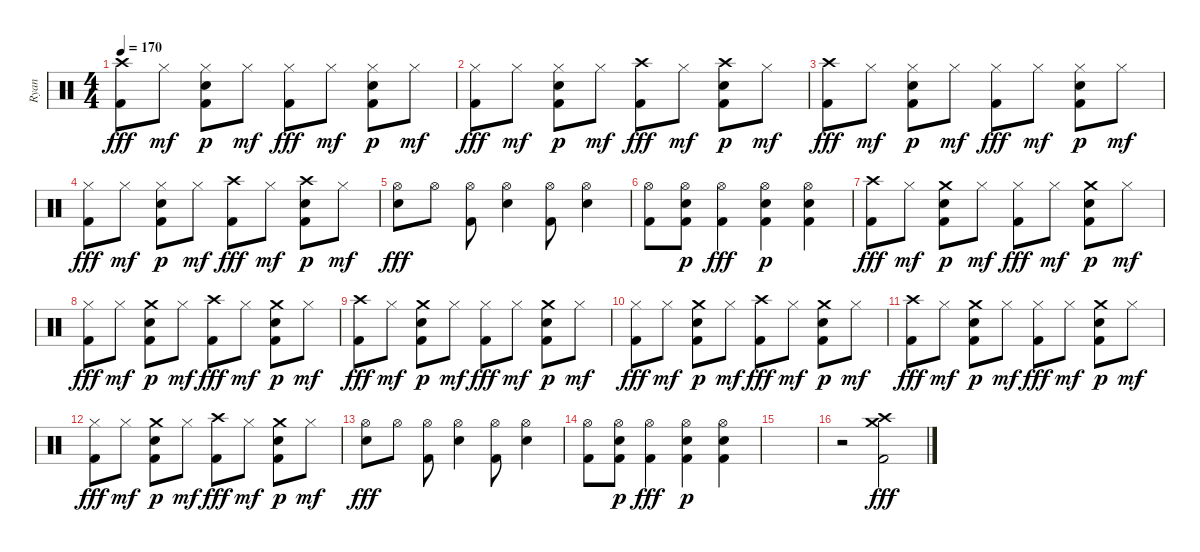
\track ("Ryan" "Ryan") {instrument percussion}
\staff {score}
\articulation defaults
\ts (4 4)
\tempo 170
\clef neutral
\ks c
("Kick (hit) 2" "Crash high (hit)").8{dy fff} "Hi-Hat (closed)".8{dy mf} ("Snare (hit) 2" "Hi-Hat (closed)" "Kick (hit) 2").8{dy p} "Hi-Hat (closed)".8{dy mf} ("Kick (hit) 2" "Hi-Hat (closed)").8{dy fff} "Hi-Hat (closed)".8{dy mf} ("Snare (hit) 2" "Hi-Hat (closed)" "Kick (hit) 2").8{dy p} "Hi-Hat (closed)".8{dy mf} |
("Kick (hit) 2" "Hi-Hat (closed)").8{dy fff} "Hi-Hat (closed)".8{dy mf} ("Snare (hit) 2" "Hi-Hat (closed)" "Kick (hit) 2").8{dy p} "Hi-Hat (closed)".8{dy mf} ("Kick (hit) 2" "Crash high (hit)").8{dy fff} "Hi-Hat (closed)".8{dy mf} ("Snare (hit) 2" "Crash high (hit)" "Kick (hit) 2").8{dy p} "Hi-Hat (closed)".8{dy mf} |
("Kick (hit) 2" "Crash high (hit)").8{dy fff} "Hi-Hat (closed)".8{dy mf} ("Snare (hit) 2" "Hi-Hat (closed)" "Kick (hit) 2").8{dy p} "Hi-Hat (closed)".8{dy mf} ("Kick (hit) 2" "Hi-Hat (closed)").8{dy fff} "Hi-Hat (closed)".8{dy mf} ("Snare (hit) 2" "Hi-Hat (closed)" "Kick (hit) 2").8{dy p} "Hi-Hat (closed)".8{dy mf} |
("Kick (hit) 2" "Hi-Hat (closed)").8{dy fff} "Hi-Hat (closed)".8{dy mf} ("Snare (hit) 2" "Hi-Hat (closed)" "Kick (hit) 2").8{dy p} "Hi-Hat (closed)".8{dy mf} ("Kick (hit) 2" "Crash high (hit)").8{dy fff} "Hi-Hat (closed)".8{dy mf} ("Snare (hit) 2" "Crash high (hit)" "Kick (hit) 2").8{dy p} "Hi-Hat (closed)".8{dy mf} |
("Hi-Hat (open)" "Snare (hit) 2").8{dy fff} "Hi-Hat (open)".8 ("Hi-Hat (open)" "Kick (hit) 2").8 ("Hi-Hat (open)" "Snare (hit) 2").4 ("Hi-Hat (open)" "Kick (hit) 2").8 ("Hi-Hat (open)" "Snare (hit) 2").4 |
("Kick (hit) 2" "Hi-Hat (open)").8 ("Snare (hit) 2" "Hi-Hat (open)" "Kick (hit) 2").8{dy p} ("Kick (hit) 2" "Hi-Hat (open)").4{dy fff} ("Snare (hit) 2" "Hi-Hat (open)" "Kick (hit) 2").4{dy p} ("Snare (hit) 2" "Hi-Hat (open)" "Kick (hit) 2").4 |
("Kick (hit) 2" "Crash high (hit)").8{dy fff} "Hi-Hat (closed)".8{dy mf} ("Snare (hit) 2" "Crash medium (hit)" "Kick (hit) 2").8{dy p} "Hi-Hat (closed)".8{dy mf} ("Kick (hit) 2" "Hi-Hat (closed)").8{dy fff} "Hi-Hat (closed)".8{dy mf} ("Snare (hit) 2" "Crash medium (hit)" "Kick (hit) 2").8{dy p} "Hi-Hat (closed)".8{dy mf} |
("Kick (hit) 2" "Hi-Hat (closed)").8{dy fff} "Hi-Hat (closed)".8{dy mf} ("Snare (hit) 2" "Crash medium (hit)" "Kick (hit) 2").8{dy p} "Hi-Hat (closed)".8{dy mf} ("Kick (hit) 2" "Crash high (hit)").8{dy fff} "Hi-Hat (closed)".8{dy mf} ("Snare (hit) 2" "Crash medium (hit)" "Kick (hit) 2").8{dy p} "Hi-Hat (closed)".8{dy mf} |
("Kick (hit) 2" "Crash high (hit)").8{dy fff} "Hi-Hat (closed)".8{dy mf} ("Snare (hit) 2" "Crash medium (hit)" "Kick (hit) 2").8{dy p} "Hi-Hat (closed)".8{dy mf} ("Kick (hit) 2" "Hi-Hat (closed)").8{dy fff} "Hi-Hat (closed)".8{dy mf} ("Snare (hit) 2" "Crash medium (hit)" "Kick (hit) 2").8{dy p} "Hi-Hat (closed)".8{dy mf} |
("Kick (hit) 2" "Hi-Hat (closed)").8{dy fff} "Hi-Hat (closed)".8{dy mf} ("Snare (hit) 2" "Crash medium (hit)" "Kick (hit) 2").8{dy p} "Hi-Hat (closed)".8{dy mf} ("Kick (hit) 2" "Crash high (hit)").8{dy fff} "Hi-Hat (closed)".8{dy mf} ("Snare (hit) 2" "Crash medium (hit)" "Kick (hit) 2").8{dy p} "Hi-Hat (closed)".8{dy mf} |
("Kick (hit) 2" "Crash high (hit)").8{dy fff} "Hi-Hat (closed)".8{dy mf} ("Snare (hit) 2" "Crash medium (hit)" "Kick (hit) 2").8{dy p} "Hi-Hat (closed)".8{dy mf} ("Kick (hit) 2" "Hi-Hat (closed)").8{dy fff} "Hi-Hat (closed)".8{dy mf} ("Snare (hit) 2" "Crash medium (hit)" "Kick (hit) 2").8{dy p} "Hi-Hat (closed)".8{dy mf} |
("Kick (hit) 2" "Hi-Hat (closed)").8{dy fff} "Hi-Hat (closed)".8{dy mf} ("Snare (hit) 2" "Crash medium (hit)" "Kick (hit) 2").8{dy p} "Hi-Hat (closed)".8{dy mf} ("Kick (hit) 2" "Crash high (hit)").8{dy fff} "Hi-Hat (closed)".8{dy mf} ("Snare (hit) 2" "Crash medium (hit)" "Kick (hit) 2").8{dy p} "Hi-Hat (closed)".8{dy mf} |
("Hi-Hat (open)" "Snare (hit) 2").8{dy fff} "Hi-Hat (open)".8 ("Hi-Hat (open)" "Kick (hit) 2").8 ("Hi-Hat (open)" "Snare (hit) 2").4 ("Hi-Hat (open)" "Kick (hit) 2").8 ("Hi-Hat (open)" "Snare (hit) 2").4 |
("Kick (hit) 2" "Hi-Hat (open)").8 ("Snare (hit) 2" "Hi-Hat (open)" "Kick (hit) 2").8{dy p} ("Kick (hit) 2" "Hi-Hat (open)").4{dy fff} ("Snare (hit) 2" "Hi-Hat (open)" "Kick (hit) 2").4{dy p} ("Snare (hit) 2" "Hi-Hat (open)" "Kick (hit) 2").4 |
|
r.2 ("Kick (hit) 2" "Crash high (hit)" "Crash medium (hit)").2{dy fff}
